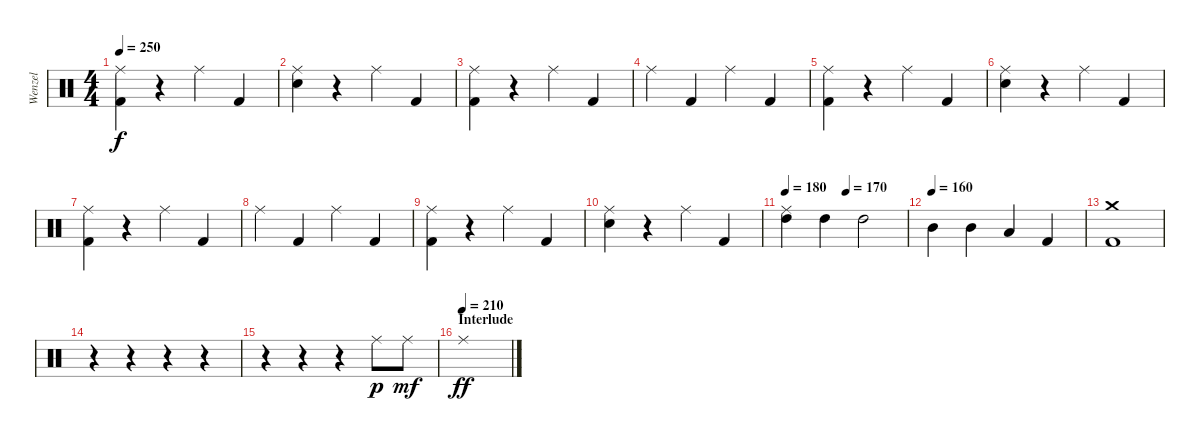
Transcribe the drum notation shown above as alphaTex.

\track ("Wenzel" "Wenzel") {instrument percussion}
\staff {score}
\articulation defaults
\ts (4 4)
\tempo 250
\clef neutral
\ks c
("Ride (middle)" "Kick (hit) 2").4{dy f} r.4 "Ride (middle)".4 "Kick (hit) 2".4 |
("Ride (middle)" "Snare (hit) 2").4 r.4 "Ride (middle)".4 "Kick (hit) 2".4 |
("Ride (middle)" "Kick (hit) 2").4 r.4 "Ride (middle)".4 "Kick (hit) 2".4 |
"Ride (middle)".4 "Kick (hit) 2".4 "Ride (middle)".4 "Kick (hit) 2".4 |
("Ride (middle)" "Kick (hit) 2").4 r.4 "Ride (middle)".4 "Kick (hit) 2".4 |
("Ride (middle)" "Snare (hit) 2").4 r.4 "Ride (middle)".4 "Kick (hit) 2".4 |
("Ride (middle)" "Kick (hit) 2").4 r.4 "Ride (middle)".4 "Kick (hit) 2".4 |
"Ride (middle)".4 "Kick (hit) 2".4 "Ride (middle)".4 "Kick (hit) 2".4 |
("Ride (middle)" "Kick (hit) 2").4 r.4 "Ride (middle)".4 "Kick (hit) 2".4 |
("Ride (middle)" "Snare (hit) 2").4 r.4 "Ride (middle)".4 "Kick (hit) 2".4 |
\tempo 180
\tempo (170 0.5)
("High Tom (hit)" "Ride (middle)").4 "High Tom (hit)".4 "High Tom (hit)".2 |
\tempo (160)
"Mid Tom (hit)".4 "Mid Tom (hit)".4 "Low Tom (hit)".4 "Kick (hit) 2".4 |
("Crash medium (hit)" "Kick (hit) 2").1 |
r.4 r.4 r.4 r.4 |
r.4 r.4 r.4 "Ride (middle)".8{dy p} "Ride (middle)".8{dy mf} |
\section ("" "Interlude")
\tempo 240
\tempo (210)
"Ride (middle)".1{dy ff}
